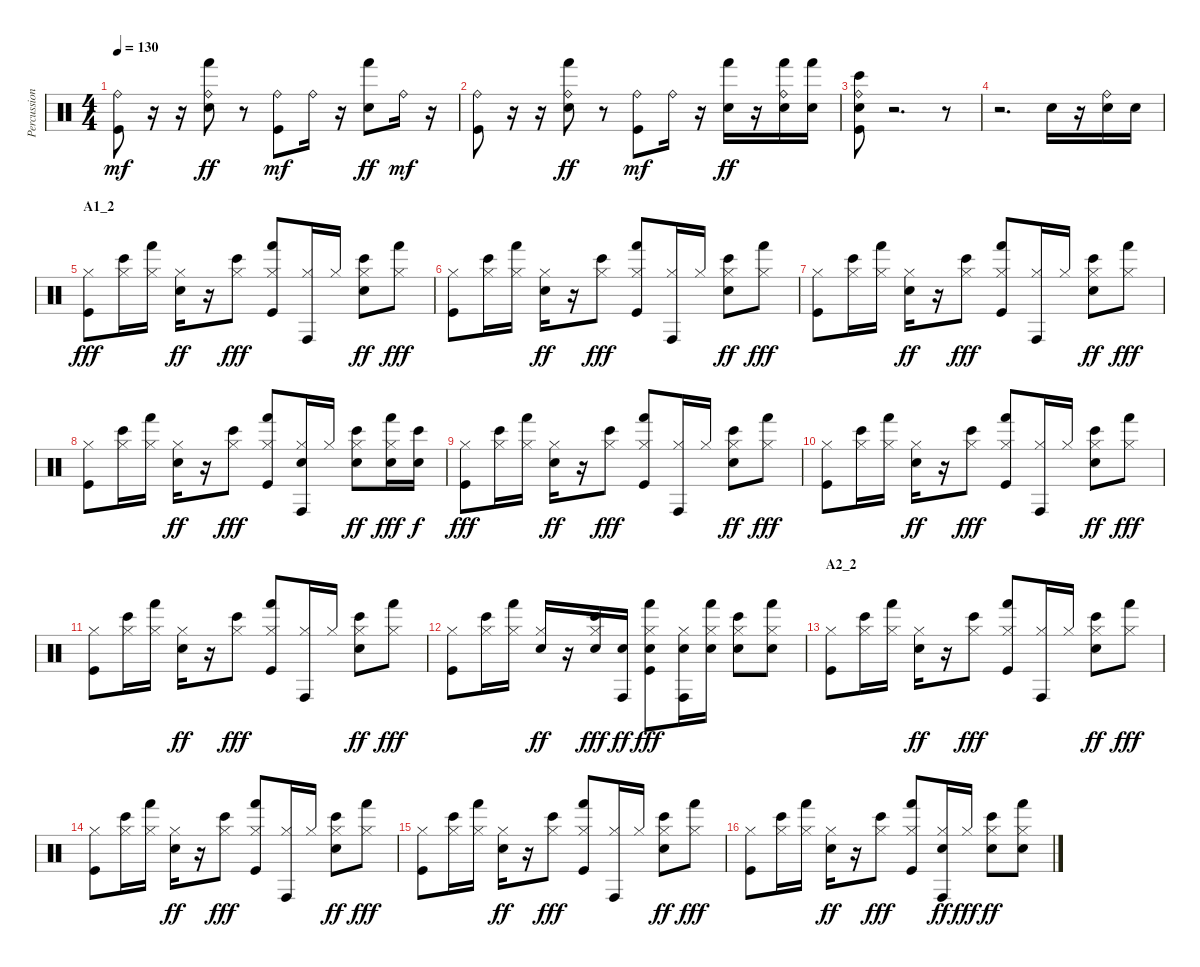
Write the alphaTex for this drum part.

\track ("Percussion" "Percussion") {instrument percussion}
\staff {score}
\articulation defaults
\ts (4 4)
\tempo 130
\clef neutral
\ks c
("Ride (bell)" "Kick (hit)").8{dy mf} r.16 r.16 ("Ride (bell)" "Hand (hit)" "Electric Snare (hit)").8{dy ff} r.8 ("Ride (bell)" "Kick (hit)").8{dy mf} "Ride (bell)".16 r.16 ("Hand (hit)" "Electric Snare (hit)").8{dy ff} "Ride (bell)".16{dy mf} r.16 |
("Ride (bell)" "Kick (hit)").8 r.16 r.16 ("Ride (bell)" "Hand (hit)" "Electric Snare (hit)").8{dy ff} r.8 ("Ride (bell)" "Kick (hit)").8{dy mf} "Ride (bell)".16 r.16 ("Hand (hit)" "Electric Snare (hit)").16{dy ff} r.16 ("Ride (bell)" "Hand (hit)" "Electric Snare (hit)").16 ("Hand (hit)" "Electric Snare (hit)").16 |
("Ride (bell)" "Bongo High (hit)" "Electric Snare (hit)" "Kick (hit)").8 r.2{d} r.8 |
r.2{d} "Electric Snare (hit)".16 r.16 ("Ride (bell)" "Electric Snare (hit)").16 "Electric Snare (hit)".16 |
\section ("" "A1_2")
("Hi-Hat (closed)" "Kick (hit)").8{dy fff} ("Hi-Hat (closed)" "Bongo High (hit)").16 ("Hi-Hat (closed)" "Hand (hit)").16 ("Hi-Hat (closed)" "Electric Snare (hit)").16{dy ff} r.16 ("Hi-Hat (closed)" "Bongo High (hit)").8{dy fff} ("Hi-Hat (closed)" "Hand (hit)" "Kick (hit)").8 ("Hi-Hat (closed)" "Conga high (hit)").16 "Hi-Hat (closed)".16 ("Hi-Hat (closed)" "Bongo High (hit)" "Electric Snare (hit)").8{dy ff} ("Hi-Hat (closed)" "Hand (hit)").8{dy fff} |
("Hi-Hat (closed)" "Kick (hit)").8 ("Hi-Hat (closed)" "Bongo High (hit)").16 ("Hi-Hat (closed)" "Hand (hit)").16 ("Hi-Hat (closed)" "Electric Snare (hit)").16{dy ff} r.16 ("Hi-Hat (closed)" "Bongo High (hit)").8{dy fff} ("Hi-Hat (closed)" "Hand (hit)" "Kick (hit)").8 ("Hi-Hat (closed)" "Conga high (hit)").16 "Hi-Hat (closed)".16 ("Hi-Hat (closed)" "Bongo High (hit)" "Electric Snare (hit)").8{dy ff} ("Hi-Hat (closed)" "Hand (hit)").8{dy fff} |
("Hi-Hat (closed)" "Kick (hit)").8 ("Hi-Hat (closed)" "Bongo High (hit)").16 ("Hi-Hat (closed)" "Hand (hit)").16 ("Hi-Hat (closed)" "Electric Snare (hit)").16{dy ff} r.16 ("Hi-Hat (closed)" "Bongo High (hit)").8{dy fff} ("Hi-Hat (closed)" "Hand (hit)" "Kick (hit)").8 ("Hi-Hat (closed)" "Conga high (hit)").16 "Hi-Hat (closed)".16 ("Hi-Hat (closed)" "Bongo High (hit)" "Electric Snare (hit)").8{dy ff} ("Hi-Hat (closed)" "Hand (hit)").8{dy fff} |
("Hi-Hat (closed)" "Kick (hit)").8 ("Hi-Hat (closed)" "Bongo High (hit)").16 ("Hi-Hat (closed)" "Hand (hit)").16 ("Hi-Hat (closed)" "Electric Snare (hit)").16{dy ff} r.16 ("Hi-Hat (closed)" "Bongo High (hit)").8{dy fff} ("Hi-Hat (closed)" "Hand (hit)" "Kick (hit)").8 ("Hi-Hat (closed)" "Conga high (hit)" "Electric Snare (hit)").16 "Hi-Hat (closed)".16 ("Hi-Hat (closed)" "Bongo High (hit)" "Electric Snare (hit)").8{dy ff} ("Hi-Hat (closed)" "Hand (hit)" "Electric Snare (hit)").16{dy fff} ("Bongo High (hit)" "Electric Snare (hit)").16{dy f} |
("Hi-Hat (closed)" "Kick (hit)").8{dy fff} ("Hi-Hat (closed)" "Bongo High (hit)").16 ("Hi-Hat (closed)" "Hand (hit)").16 ("Hi-Hat (closed)" "Electric Snare (hit)").16{dy ff} r.16 ("Hi-Hat (closed)" "Bongo High (hit)").8{dy fff} ("Hi-Hat (closed)" "Hand (hit)" "Kick (hit)").8 ("Hi-Hat (closed)" "Conga high (hit)").16 "Hi-Hat (closed)".16 ("Hi-Hat (closed)" "Bongo High (hit)" "Electric Snare (hit)").8{dy ff} ("Hi-Hat (closed)" "Hand (hit)").8{dy fff} |
("Hi-Hat (closed)" "Kick (hit)").8 ("Hi-Hat (closed)" "Bongo High (hit)").16 ("Hi-Hat (closed)" "Hand (hit)").16 ("Hi-Hat (closed)" "Electric Snare (hit)").16{dy ff} r.16 ("Hi-Hat (closed)" "Bongo High (hit)").8{dy fff} ("Hi-Hat (closed)" "Hand (hit)" "Kick (hit)").8 ("Hi-Hat (closed)" "Conga high (hit)").16 "Hi-Hat (closed)".16 ("Hi-Hat (closed)" "Bongo High (hit)" "Electric Snare (hit)").8{dy ff} ("Hi-Hat (closed)" "Hand (hit)").8{dy fff} |
("Hi-Hat (closed)" "Kick (hit)").8 ("Hi-Hat (closed)" "Bongo High (hit)").16 ("Hi-Hat (closed)" "Hand (hit)").16 ("Hi-Hat (closed)" "Electric Snare (hit)").16{dy ff} r.16 ("Hi-Hat (closed)" "Bongo High (hit)").8{dy fff} ("Hi-Hat (closed)" "Hand (hit)" "Kick (hit)").8 ("Hi-Hat (closed)" "Conga high (hit)").16 "Hi-Hat (closed)".16 ("Hi-Hat (closed)" "Bongo High (hit)" "Electric Snare (hit)").8{dy ff} ("Hi-Hat (closed)" "Hand (hit)").8{dy fff} |
("Hi-Hat (closed)" "Kick (hit)").8 ("Hi-Hat (closed)" "Bongo High (hit)").16 ("Hi-Hat (closed)" "Hand (hit)").16 ("Hi-Hat (closed)" "Electric Snare (hit)").16{dy ff} r.16 ("Hi-Hat (closed)" "Bongo High (hit)" "Electric Snare (hit)").16{dy fff} ("Conga high (hit)" "Electric Snare (hit)").16{dy ff} ("Hi-Hat (closed)" "Hand (hit)" "Electric Snare (hit)" "Kick (hit)").8{dy fff} ("Hi-Hat (closed)" "Conga high (hit)" "Electric Snare (hit)").16 ("Hi-Hat (closed)" "Hand (hit)" "Electric Snare (hit)").16 ("Hi-Hat (closed)" "Bongo High (hit)" "Electric Snare (hit)").8 ("Hi-Hat (closed)" "Hand (hit)" "Electric Snare (hit)").8 |
\section ("" "A2_2")
("Hi-Hat (closed)" "Kick (hit)").8 ("Hi-Hat (closed)" "Bongo High (hit)").16 ("Hi-Hat (closed)" "Hand (hit)").16 ("Hi-Hat (closed)" "Electric Snare (hit)").16{dy ff} r.16 ("Hi-Hat (closed)" "Bongo High (hit)").8{dy fff} ("Hi-Hat (closed)" "Hand (hit)" "Kick (hit)").8 ("Hi-Hat (closed)" "Conga high (hit)").16 "Hi-Hat (closed)".16 ("Hi-Hat (closed)" "Bongo High (hit)" "Electric Snare (hit)").8{dy ff} ("Hi-Hat (closed)" "Hand (hit)").8{dy fff} |
("Hi-Hat (closed)" "Kick (hit)").8 ("Hi-Hat (closed)" "Bongo High (hit)").16 ("Hi-Hat (closed)" "Hand (hit)").16 ("Hi-Hat (closed)" "Electric Snare (hit)").16{dy ff} r.16 ("Hi-Hat (closed)" "Bongo High (hit)").8{dy fff} ("Hi-Hat (closed)" "Hand (hit)" "Kick (hit)").8 ("Hi-Hat (closed)" "Conga high (hit)").16 "Hi-Hat (closed)".16 ("Hi-Hat (closed)" "Bongo High (hit)" "Electric Snare (hit)").8{dy ff} ("Hi-Hat (closed)" "Hand (hit)").8{dy fff} |
("Hi-Hat (closed)" "Kick (hit)").8 ("Hi-Hat (closed)" "Bongo High (hit)").16 ("Hi-Hat (closed)" "Hand (hit)").16 ("Hi-Hat (closed)" "Electric Snare (hit)").16{dy ff} r.16 ("Hi-Hat (closed)" "Bongo High (hit)").8{dy fff} ("Hi-Hat (closed)" "Hand (hit)" "Kick (hit)").8 ("Hi-Hat (closed)" "Conga high (hit)").16 "Hi-Hat (closed)".16 ("Hi-Hat (closed)" "Bongo High (hit)" "Electric Snare (hit)").8{dy ff} ("Hi-Hat (closed)" "Hand (hit)").8{dy fff} |
("Hi-Hat (closed)" "Kick (hit)").8 ("Hi-Hat (closed)" "Bongo High (hit)").16 ("Hi-Hat (closed)" "Hand (hit)").16 ("Hi-Hat (closed)" "Electric Snare (hit)").16{dy ff} r.16 ("Hi-Hat (closed)" "Bongo High (hit)").8{dy fff} ("Hi-Hat (closed)" "Hand (hit)" "Kick (hit)").8 ("Hi-Hat (closed)" "Conga high (hit)" "Electric Snare (hit)").16{dy ff} "Hi-Hat (closed)".16{dy fff} ("Hi-Hat (closed)" "Bongo High (hit)" "Electric Snare (hit)").8{dy ff} ("Hi-Hat (closed)" "Hand (hit)" "Electric Snare (hit)").8
